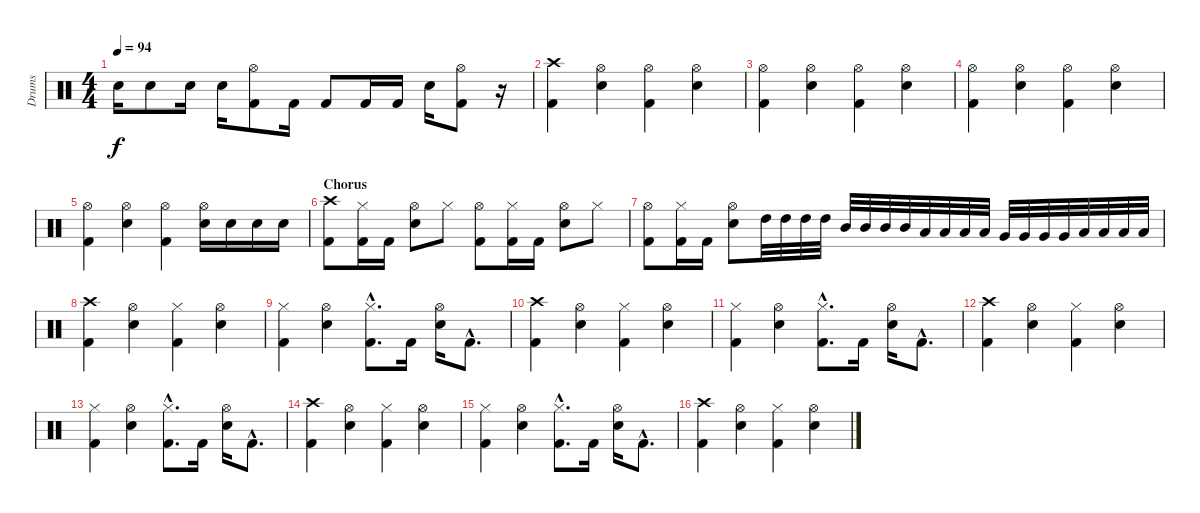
\track ("Drums" "Drums") {instrument percussion}
\staff {score}
\articulation defaults
\ts (4 4)
\tempo 94
\clef neutral
\ks c "Snare (hit) 2".16{dy f} "Snare (hit) 2".8 "Snare (hit) 2".16 "Snare (hit) 2".16
("Hi-Hat (open)" "Kick (hit) 2").8 "Kick (hit) 2".16 "Kick (hit) 2".8 "Kick (hit) 2".16 "Kick (hit) 2".16 "Snare (hit) 2".16 ("Hi-Hat (open)" "Kick (hit) 2").8 r.16 |
("Crash high (hit)" "Kick (hit) 2").4 ("Hi-Hat (open)" "Snare (hit) 2").4 ("Hi-Hat (open)" "Kick (hit) 2").4 ("Hi-Hat (open)" "Snare (hit) 2").4 |
("Hi-Hat (open)" "Kick (hit) 2").4 ("Hi-Hat (open)" "Snare (hit) 2").4 ("Hi-Hat (open)" "Kick (hit) 2").4 ("Hi-Hat (open)" "Snare (hit) 2").4 |
("Hi-Hat (open)" "Kick (hit) 2").4 ("Hi-Hat (open)" "Snare (hit) 2").4 ("Hi-Hat (open)" "Kick (hit) 2").4 ("Hi-Hat (open)" "Snare (hit) 2").4 |
("Hi-Hat (open)" "Kick (hit) 2").4 ("Hi-Hat (open)" "Snare (hit) 2").4 ("Hi-Hat (open)" "Kick (hit) 2").4 ("Hi-Hat (open)" "Snare (hit) 2").16 "Snare (hit) 2".16 "Snare (hit) 2".16 "Snare (hit) 2".16 |
\section ("" "Chorus")
("Crash high (hit)" "Kick (hit) 2").8 ("Hi-Hat (closed)" "Kick (hit) 2").16 "Kick (hit) 2".16 ("Hi-Hat (open)" "Snare (hit) 2").8 "Hi-Hat (closed)".8 ("Hi-Hat (open)" "Kick (hit) 2").8 ("Hi-Hat (closed)" "Kick (hit) 2").16 "Kick (hit) 2".16 ("Hi-Hat (open)" "Snare (hit) 2").8 "Hi-Hat (closed)".8 |
("Hi-Hat (open)" "Kick (hit) 2").8 ("Hi-Hat (closed)" "Kick (hit) 2").16 "Kick (hit) 2".16 ("Hi-Hat (open)" "Snare (hit) 2").8 "High Tom (hit)".32 "High Tom (hit)".32 "High Tom (hit)".32 "High Tom (hit)".32 "Mid Tom (hit)".32 "Mid Tom (hit)".32 "Mid Tom (hit)".32 "Mid Tom (hit)".32 "Low Tom (hit)".32 "Low Tom (hit)".32 "Low Tom (hit)".32 "Low Tom (hit)".32 "Very Low Tom (hit)".32 "Very Low Tom (hit)".32 "Very Low Tom (hit)".32 "Very Low Tom (hit)".32 "Low Floor Tom (hit)".32 "Low Floor Tom (hit)".32 "Low Floor Tom (hit)".32 "Low Floor Tom (hit)".32 |
("Crash high (hit)" "Kick (hit) 2").4 ("Hi-Hat (open)" "Snare (hit) 2").4 ("Hi-Hat (closed)" "Kick (hit) 2").4 ("Hi-Hat (open)" "Snare (hit) 2").4 |
("Hi-Hat (closed)" "Kick (hit) 2").4 ("Hi-Hat (open)" "Snare (hit) 2").4 ("Hi-Hat (closed)"{hac} "Kick (hit) 2"{hac}).8{d} "Kick (hit) 2".16 ("Hi-Hat (open)" "Snare (hit) 2").16 "Kick (hit) 2"{hac}.8{d} |
("Crash high (hit)" "Kick (hit) 2").4 ("Hi-Hat (open)" "Snare (hit) 2").4 ("Hi-Hat (closed)" "Kick (hit) 2").4 ("Hi-Hat (open)" "Snare (hit) 2").4 |
("Hi-Hat (closed)" "Kick (hit) 2").4 ("Hi-Hat (open)" "Snare (hit) 2").4 ("Hi-Hat (closed)"{hac} "Kick (hit) 2"{hac}).8{d} "Kick (hit) 2".16 ("Hi-Hat (open)" "Snare (hit) 2").16 "Kick (hit) 2"{hac}.8{d} |
("Crash high (hit)" "Kick (hit) 2").4 ("Hi-Hat (open)" "Snare (hit) 2").4 ("Hi-Hat (closed)" "Kick (hit) 2").4 ("Hi-Hat (open)" "Snare (hit) 2").4 |
("Hi-Hat (closed)" "Kick (hit) 2").4 ("Hi-Hat (open)" "Snare (hit) 2").4 ("Hi-Hat (closed)"{hac} "Kick (hit) 2"{hac}).8{d} "Kick (hit) 2".16 ("Hi-Hat (open)" "Snare (hit) 2").16 "Kick (hit) 2"{hac}.8{d} |
("Crash high (hit)" "Kick (hit) 2").4 ("Hi-Hat (open)" "Snare (hit) 2").4 ("Hi-Hat (closed)" "Kick (hit) 2").4 ("Hi-Hat (open)" "Snare (hit) 2").4 |
("Hi-Hat (closed)" "Kick (hit) 2").4 ("Hi-Hat (open)" "Snare (hit) 2").4 ("Hi-Hat (closed)"{hac} "Kick (hit) 2"{hac}).8{d} "Kick (hit) 2".16 ("Hi-Hat (open)" "Snare (hit) 2").16 "Kick (hit) 2"{hac}.8{d} |
("Crash high (hit)" "Kick (hit) 2").4 ("Hi-Hat (open)" "Snare (hit) 2").4 ("Hi-Hat (closed)" "Kick (hit) 2").4 ("Hi-Hat (open)" "Snare (hit) 2").4
